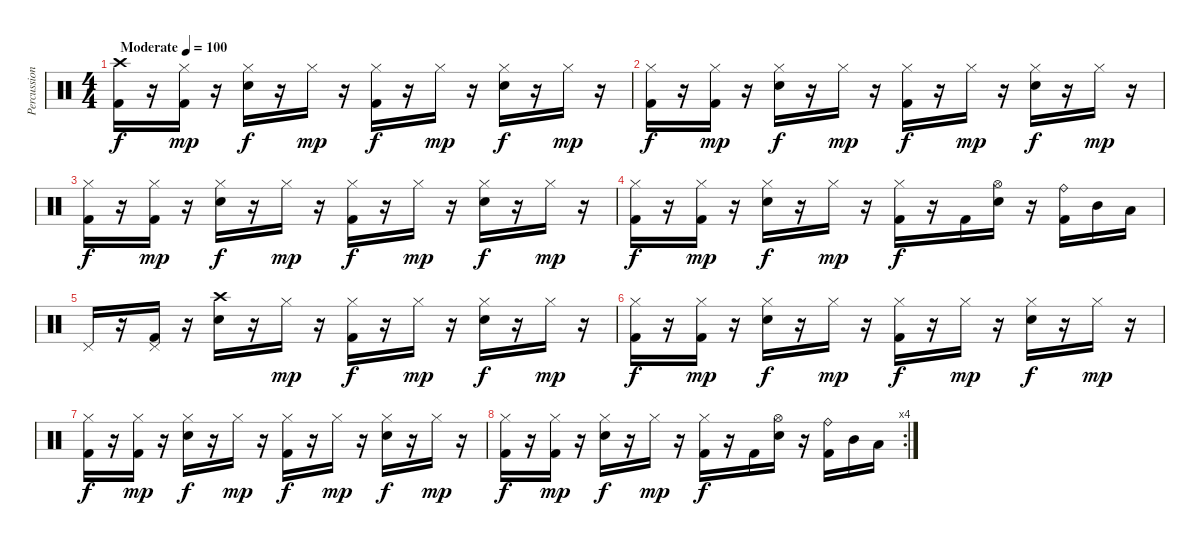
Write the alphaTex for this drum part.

\track ("Percussion" "Percussion") {instrument percussion}
\staff {score}
\articulation defaults
\ts (4 4)
\tempo (100 "Moderate")
\clef neutral
\ks c
("Crash high (hit)" "Kick (hit) 2").16{dy f} r.16 ("Hi-Hat (closed)" "Kick (hit) 2").16{dy mp} r.16 ("Hi-Hat (closed)" "Electric Snare (hit)").16{dy f} r.16 "Hi-Hat (closed)".16{dy mp} r.16 ("Hi-Hat (closed)" "Kick (hit) 2").16{dy f} r.16 "Hi-Hat (closed)".16{dy mp} r.16 ("Hi-Hat (closed)" "Electric Snare (hit)").16{dy f} r.16 "Hi-Hat (closed)".16{dy mp} r.16 |
("Hi-Hat (closed)" "Kick (hit) 2").16{dy f} r.16 ("Hi-Hat (closed)" "Kick (hit) 2").16{dy mp} r.16 ("Hi-Hat (closed)" "Electric Snare (hit)").16{dy f} r.16 "Hi-Hat (closed)".16{dy mp} r.16 ("Hi-Hat (closed)" "Kick (hit) 2").16{dy f} r.16 "Hi-Hat (closed)".16{dy mp} r.16 ("Hi-Hat (closed)" "Electric Snare (hit)").16{dy f} r.16 "Hi-Hat (closed)".16{dy mp} r.16 |
("Hi-Hat (closed)" "Kick (hit) 2").16{dy f} r.16 ("Hi-Hat (closed)" "Kick (hit) 2").16{dy mp} r.16 ("Hi-Hat (closed)" "Electric Snare (hit)").16{dy f} r.16 "Hi-Hat (closed)".16{dy mp} r.16 ("Hi-Hat (closed)" "Kick (hit) 2").16{dy f} r.16 "Hi-Hat (closed)".16{dy mp} r.16 ("Hi-Hat (closed)" "Electric Snare (hit)").16{dy f} r.16 "Hi-Hat (closed)".16{dy mp} r.16 |
("Hi-Hat (closed)" "Kick (hit) 2").16{dy f} r.16 ("Hi-Hat (closed)" "Kick (hit) 2").16{dy mp} r.16 ("Hi-Hat (closed)" "Electric Snare (hit)").16{dy f} r.16 "Hi-Hat (closed)".16{dy mp} r.16 ("Hi-Hat (closed)" "Kick (hit) 2").16{dy f} r.16 "Kick (hit) 2".16 ("Hi-Hat (open)" "Electric Snare (hit)").16 r.16 ("Ride (bell)" "Kick (hit) 2").16 "Mid Tom (hit)".16 "Low Tom (hit)".16 |
"Pedal Hi-Hat (hit)".16 r.16 ("Pedal Hi-Hat (hit)" "Kick (hit) 2").16 r.16 ("Crash high (hit)" "Electric Snare (hit)").16 r.16 "Hi-Hat (closed)".16{dy mp} r.16 ("Hi-Hat (closed)" "Kick (hit) 2").16{dy f} r.16 "Hi-Hat (closed)".16{dy mp} r.16 ("Hi-Hat (closed)" "Electric Snare (hit)").16{dy f} r.16 "Hi-Hat (closed)".16{dy mp} r.16 |
("Hi-Hat (closed)" "Kick (hit) 2").16{dy f} r.16 ("Hi-Hat (closed)" "Kick (hit) 2").16{dy mp} r.16 ("Hi-Hat (closed)" "Electric Snare (hit)").16{dy f} r.16 "Hi-Hat (closed)".16{dy mp} r.16 ("Hi-Hat (closed)" "Kick (hit) 2").16{dy f} r.16 "Hi-Hat (closed)".16{dy mp} r.16 ("Hi-Hat (closed)" "Electric Snare (hit)").16{dy f} r.16 "Hi-Hat (closed)".16{dy mp} r.16 |
("Hi-Hat (closed)" "Kick (hit) 2").16{dy f} r.16 ("Hi-Hat (closed)" "Kick (hit) 2").16{dy mp} r.16 ("Hi-Hat (closed)" "Electric Snare (hit)").16{dy f} r.16 "Hi-Hat (closed)".16{dy mp} r.16 ("Hi-Hat (closed)" "Kick (hit) 2").16{dy f} r.16 "Hi-Hat (closed)".16{dy mp} r.16 ("Hi-Hat (closed)" "Electric Snare (hit)").16{dy f} r.16 "Hi-Hat (closed)".16{dy mp} r.16 |
\rc 4
("Hi-Hat (closed)" "Kick (hit) 2").16{dy f} r.16 ("Hi-Hat (closed)" "Kick (hit) 2").16{dy mp} r.16 ("Hi-Hat (closed)" "Electric Snare (hit)").16{dy f} r.16 "Hi-Hat (closed)".16{dy mp} r.16 ("Hi-Hat (closed)" "Kick (hit) 2").16{dy f} r.16 "Kick (hit) 2".16 ("Hi-Hat (open)" "Electric Snare (hit)").16 r.16 ("Ride (bell)" "Kick (hit) 2").16 "Mid Tom (hit)".16 "Low Tom (hit)".16
